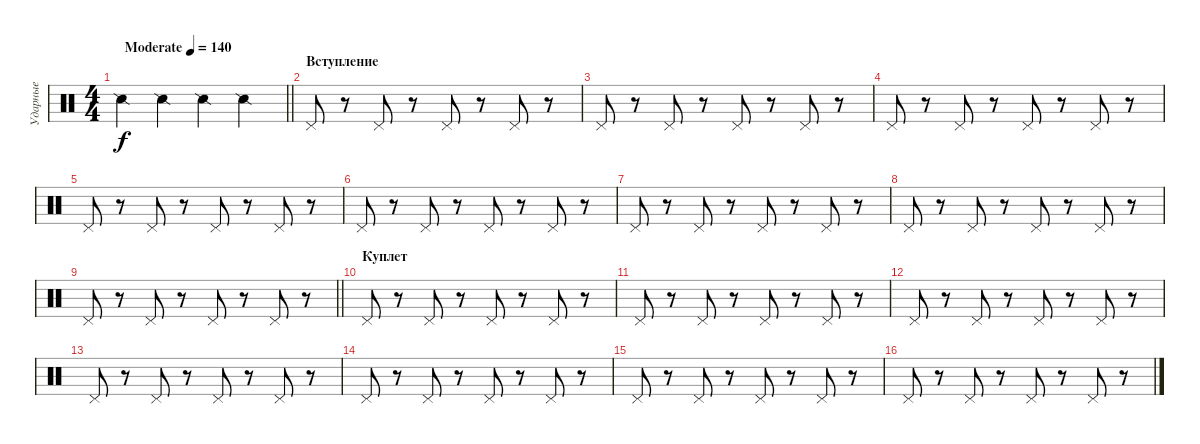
\track ("Ударные" "Ударные") {instrument percussion}
\staff {score}
\articulation defaults
\ts (4 4)
\tempo (140 "Moderate")
\clef neutral
\barLineRight lightlight
\ks c "Snare (side stick) 2".4{dy f} "Snare (side stick) 2".4 "Snare (side stick) 2".4 "Snare (side stick) 2".4
|
\section ("" "Вступление")
"Pedal Hi-Hat (hit)".8 r.8 "Pedal Hi-Hat (hit)".8 r.8 "Pedal Hi-Hat (hit)".8 r.8 "Pedal Hi-Hat (hit)".8 r.8 |
"Pedal Hi-Hat (hit)".8 r.8 "Pedal Hi-Hat (hit)".8 r.8 "Pedal Hi-Hat (hit)".8 r.8 "Pedal Hi-Hat (hit)".8 r.8 |
"Pedal Hi-Hat (hit)".8 r.8 "Pedal Hi-Hat (hit)".8 r.8 "Pedal Hi-Hat (hit)".8 r.8 "Pedal Hi-Hat (hit)".8 r.8 |
"Pedal Hi-Hat (hit)".8 r.8 "Pedal Hi-Hat (hit)".8 r.8 "Pedal Hi-Hat (hit)".8 r.8 "Pedal Hi-Hat (hit)".8 r.8 |
"Pedal Hi-Hat (hit)".8 r.8 "Pedal Hi-Hat (hit)".8 r.8 "Pedal Hi-Hat (hit)".8 r.8 "Pedal Hi-Hat (hit)".8 r.8 |
"Pedal Hi-Hat (hit)".8 r.8 "Pedal Hi-Hat (hit)".8 r.8 "Pedal Hi-Hat (hit)".8 r.8 "Pedal Hi-Hat (hit)".8 r.8 |
"Pedal Hi-Hat (hit)".8 r.8 "Pedal Hi-Hat (hit)".8 r.8 "Pedal Hi-Hat (hit)".8 r.8 "Pedal Hi-Hat (hit)".8 r.8 |
\barLineRight lightlight "Pedal Hi-Hat (hit)".8
r.8 "Pedal Hi-Hat (hit)".8 r.8 "Pedal Hi-Hat (hit)".8 r.8 "Pedal Hi-Hat (hit)".8 r.8 |
\section ("" "Куплет")
"Pedal Hi-Hat (hit)".8 r.8 "Pedal Hi-Hat (hit)".8 r.8 "Pedal Hi-Hat (hit)".8 r.8 "Pedal Hi-Hat (hit)".8 r.8 |
"Pedal Hi-Hat (hit)".8 r.8 "Pedal Hi-Hat (hit)".8 r.8 "Pedal Hi-Hat (hit)".8 r.8 "Pedal Hi-Hat (hit)".8 r.8 |
"Pedal Hi-Hat (hit)".8 r.8 "Pedal Hi-Hat (hit)".8 r.8 "Pedal Hi-Hat (hit)".8 r.8 "Pedal Hi-Hat (hit)".8 r.8 |
"Pedal Hi-Hat (hit)".8 r.8 "Pedal Hi-Hat (hit)".8 r.8 "Pedal Hi-Hat (hit)".8 r.8 "Pedal Hi-Hat (hit)".8 r.8 |
"Pedal Hi-Hat (hit)".8 r.8 "Pedal Hi-Hat (hit)".8 r.8 "Pedal Hi-Hat (hit)".8 r.8 "Pedal Hi-Hat (hit)".8 r.8 |
"Pedal Hi-Hat (hit)".8 r.8 "Pedal Hi-Hat (hit)".8 r.8 "Pedal Hi-Hat (hit)".8 r.8 "Pedal Hi-Hat (hit)".8 r.8 |
"Pedal Hi-Hat (hit)".8 r.8 "Pedal Hi-Hat (hit)".8 r.8 "Pedal Hi-Hat (hit)".8 r.8 "Pedal Hi-Hat (hit)".8 r.8
